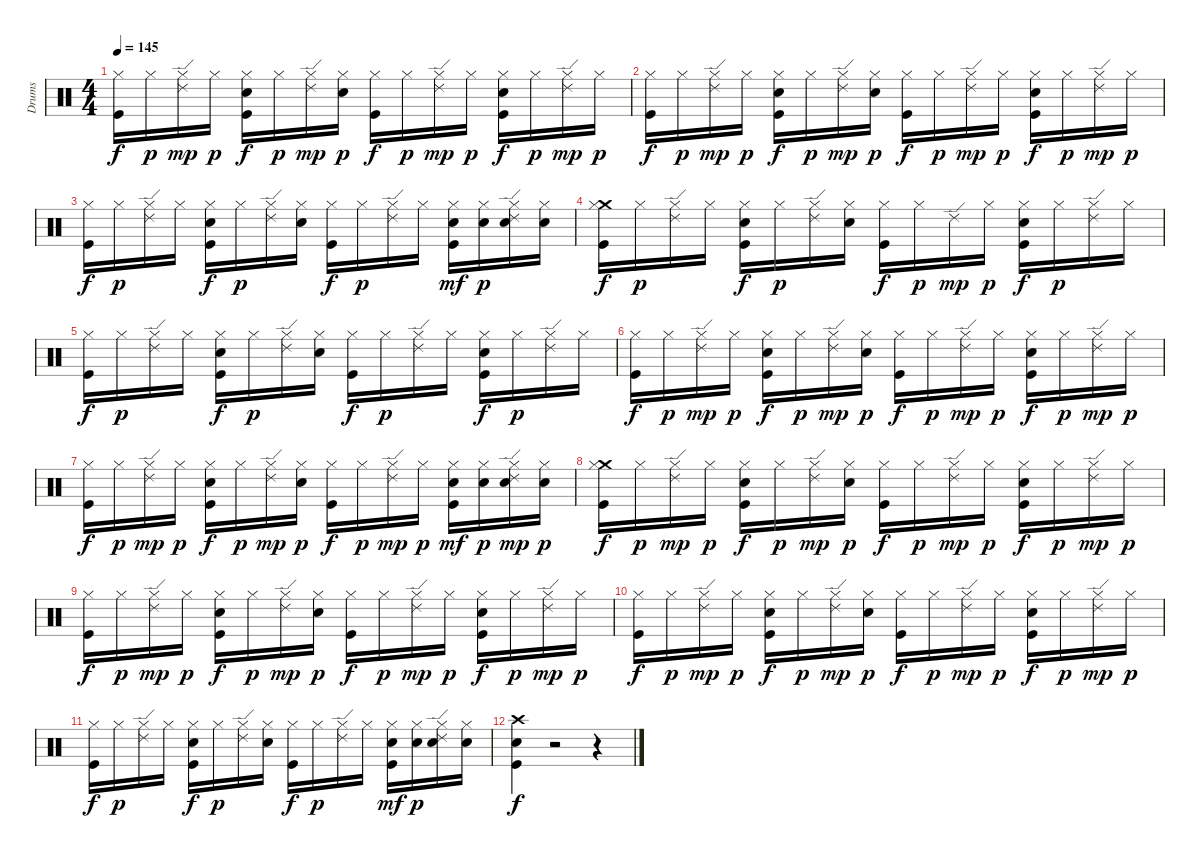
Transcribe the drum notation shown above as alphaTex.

\track ("Drums" "Drums") {instrument percussion}
\staff {score}
\articulation defaults
\ts (4 4)
\tempo 145
\clef neutral
\ks c
("Kick (hit)" "Hi-Hat (closed)").16{dy f} "Hi-Hat (closed)".16{dy p} ("Hi-Hat (closed)" "Ride (edge) 2").16{dy mp} "Hi-Hat (closed)".16{dy p} ("Electric Snare (hit)" "Kick (hit)" "Hi-Hat (closed)").16{dy f} "Hi-Hat (closed)".16{dy p} ("Hi-Hat (closed)" "Ride (edge) 2").16{dy mp} ("Electric Snare (hit)" "Hi-Hat (closed)").16{dy p} ("Kick (hit)" "Hi-Hat (closed)").16{dy f} "Hi-Hat (closed)".16{dy p} ("Hi-Hat (closed)" "Ride (edge) 2").16{dy mp} "Hi-Hat (closed)".16{dy p} ("Electric Snare (hit)" "Kick (hit)" "Hi-Hat (closed)").16{dy f} "Hi-Hat (closed)".16{dy p} ("Hi-Hat (closed)" "Ride (edge) 2").16{dy mp} "Hi-Hat (closed)".16{dy p} |
("Kick (hit)" "Hi-Hat (closed)").16{dy f} "Hi-Hat (closed)".16{dy p} ("Hi-Hat (closed)" "Ride (edge) 2").16{dy mp} "Hi-Hat (closed)".16{dy p} ("Electric Snare (hit)" "Kick (hit)" "Hi-Hat (closed)").16{dy f} "Hi-Hat (closed)".16{dy p} ("Hi-Hat (closed)" "Ride (edge) 2").16{dy mp} ("Electric Snare (hit)" "Hi-Hat (closed)").16{dy p} ("Kick (hit)" "Hi-Hat (closed)").16{dy f} "Hi-Hat (closed)".16{dy p} ("Hi-Hat (closed)" "Ride (edge) 2").16{dy mp} "Hi-Hat (closed)".16{dy p} ("Electric Snare (hit)" "Kick (hit)" "Hi-Hat (closed)").16{dy f} "Hi-Hat (closed)".16{dy p} ("Hi-Hat (closed)" "Ride (edge) 2").16{dy mp} "Hi-Hat (closed)".16{dy p} |
("Kick (hit)" "Hi-Hat (closed)").16{dy f} "Hi-Hat (closed)".16{dy p} ("Ride (edge) 2" "Hi-Hat (closed)").16 "Hi-Hat (closed)".16 ("Electric Snare (hit)" "Kick (hit)" "Hi-Hat (closed)").16{dy f} "Hi-Hat (closed)".16{dy p} ("Ride (edge) 2" "Hi-Hat (closed)").16 ("Electric Snare (hit)" "Hi-Hat (closed)").16 ("Kick (hit)" "Hi-Hat (closed)").16{dy f} "Hi-Hat (closed)".16{dy p} ("Ride (edge) 2" "Hi-Hat (closed)").16 "Hi-Hat (closed)".16 ("Electric Snare (hit)" "Kick (hit)" "Hi-Hat (closed)").16{dy mf} ("Electric Snare (hit)" "Hi-Hat (closed)").16{dy p} ("Electric Snare (hit)" "Ride (edge) 2" "Hi-Hat (closed)").16 ("Electric Snare (hit)" "Hi-Hat (closed)").16 |
("Crash medium (hit)" "Kick (hit)" "Hi-Hat (closed)").16{dy f} "Hi-Hat (closed)".16{dy p} ("Ride (edge) 2" "Hi-Hat (closed)").16 "Hi-Hat (closed)".16 ("Electric Snare (hit)" "Kick (hit)" "Hi-Hat (closed)").16{dy f} "Hi-Hat (closed)".16{dy p} ("Ride (edge) 2" "Hi-Hat (closed)").16 ("Electric Snare (hit)" "Hi-Hat (closed)").16 ("Kick (hit)" "Hi-Hat (closed)").16{dy f} "Hi-Hat (closed)".16{dy p} "Ride (edge) 2".16{dy mp} "Hi-Hat (closed)".16{dy p} ("Electric Snare (hit)" "Kick (hit)" "Hi-Hat (closed)").16{dy f} "Hi-Hat (closed)".16{dy p} ("Ride (edge) 2" "Hi-Hat (closed)").16 "Hi-Hat (closed)".16 |
("Kick (hit)" "Hi-Hat (closed)").16{dy f} "Hi-Hat (closed)".16{dy p} ("Ride (edge) 2" "Hi-Hat (closed)").16 "Hi-Hat (closed)".16 ("Electric Snare (hit)" "Kick (hit)" "Hi-Hat (closed)").16{dy f} "Hi-Hat (closed)".16{dy p} ("Ride (edge) 2" "Hi-Hat (closed)").16 ("Electric Snare (hit)" "Hi-Hat (closed)").16 ("Kick (hit)" "Hi-Hat (closed)").16{dy f} "Hi-Hat (closed)".16{dy p} ("Ride (edge) 2" "Hi-Hat (closed)").16 "Hi-Hat (closed)".16 ("Electric Snare (hit)" "Kick (hit)" "Hi-Hat (closed)").16{dy f} "Hi-Hat (closed)".16{dy p} ("Ride (edge) 2" "Hi-Hat (closed)").16 "Hi-Hat (closed)".16 |
("Kick (hit)" "Hi-Hat (closed)").16{dy f} "Hi-Hat (closed)".16{dy p} ("Hi-Hat (closed)" "Ride (edge) 2").16{dy mp} "Hi-Hat (closed)".16{dy p} ("Electric Snare (hit)" "Kick (hit)" "Hi-Hat (closed)").16{dy f} "Hi-Hat (closed)".16{dy p} ("Hi-Hat (closed)" "Ride (edge) 2").16{dy mp} ("Electric Snare (hit)" "Hi-Hat (closed)").16{dy p} ("Kick (hit)" "Hi-Hat (closed)").16{dy f} "Hi-Hat (closed)".16{dy p} ("Hi-Hat (closed)" "Ride (edge) 2").16{dy mp} "Hi-Hat (closed)".16{dy p} ("Electric Snare (hit)" "Kick (hit)" "Hi-Hat (closed)").16{dy f} "Hi-Hat (closed)".16{dy p} ("Hi-Hat (closed)" "Ride (edge) 2").16{dy mp} "Hi-Hat (closed)".16{dy p} |
("Kick (hit)" "Hi-Hat (closed)").16{dy f} "Hi-Hat (closed)".16{dy p} ("Hi-Hat (closed)" "Ride (edge) 2").16{dy mp} "Hi-Hat (closed)".16{dy p} ("Electric Snare (hit)" "Kick (hit)" "Hi-Hat (closed)").16{dy f} "Hi-Hat (closed)".16{dy p} ("Hi-Hat (closed)" "Ride (edge) 2").16{dy mp} ("Electric Snare (hit)" "Hi-Hat (closed)").16{dy p} ("Kick (hit)" "Hi-Hat (closed)").16{dy f} "Hi-Hat (closed)".16{dy p} ("Hi-Hat (closed)" "Ride (edge) 2").16{dy mp} "Hi-Hat (closed)".16{dy p} ("Electric Snare (hit)" "Kick (hit)" "Hi-Hat (closed)").16{dy mf} ("Electric Snare (hit)" "Hi-Hat (closed)").16{dy p} ("Electric Snare (hit)" "Hi-Hat (closed)" "Ride (edge) 2").16{dy mp} ("Electric Snare (hit)" "Hi-Hat (closed)").16{dy p} |
("Crash medium (hit)" "Kick (hit)" "Hi-Hat (closed)").16{dy f} "Hi-Hat (closed)".16{dy p} ("Hi-Hat (closed)" "Ride (edge) 2").16{dy mp} "Hi-Hat (closed)".16{dy p} ("Electric Snare (hit)" "Kick (hit)" "Hi-Hat (closed)").16{dy f} "Hi-Hat (closed)".16{dy p} ("Hi-Hat (closed)" "Ride (edge) 2").16{dy mp} ("Electric Snare (hit)" "Hi-Hat (closed)").16{dy p} ("Kick (hit)" "Hi-Hat (closed)").16{dy f} "Hi-Hat (closed)".16{dy p} ("Hi-Hat (closed)" "Ride (edge) 2").16{dy mp} "Hi-Hat (closed)".16{dy p} ("Electric Snare (hit)" "Kick (hit)" "Hi-Hat (closed)").16{dy f} "Hi-Hat (closed)".16{dy p} ("Hi-Hat (closed)" "Ride (edge) 2").16{dy mp} "Hi-Hat (closed)".16{dy p} |
("Kick (hit)" "Hi-Hat (closed)").16{dy f} "Hi-Hat (closed)".16{dy p} ("Hi-Hat (closed)" "Ride (edge) 2").16{dy mp} "Hi-Hat (closed)".16{dy p} ("Electric Snare (hit)" "Kick (hit)" "Hi-Hat (closed)").16{dy f} "Hi-Hat (closed)".16{dy p} ("Hi-Hat (closed)" "Ride (edge) 2").16{dy mp} ("Electric Snare (hit)" "Hi-Hat (closed)").16{dy p} ("Kick (hit)" "Hi-Hat (closed)").16{dy f} "Hi-Hat (closed)".16{dy p} ("Hi-Hat (closed)" "Ride (edge) 2").16{dy mp} "Hi-Hat (closed)".16{dy p} ("Electric Snare (hit)" "Kick (hit)" "Hi-Hat (closed)").16{dy f} "Hi-Hat (closed)".16{dy p} ("Hi-Hat (closed)" "Ride (edge) 2").16{dy mp} "Hi-Hat (closed)".16{dy p} |
("Kick (hit)" "Hi-Hat (closed)").16{dy f} "Hi-Hat (closed)".16{dy p} ("Hi-Hat (closed)" "Ride (edge) 2").16{dy mp} "Hi-Hat (closed)".16{dy p} ("Electric Snare (hit)" "Kick (hit)" "Hi-Hat (closed)").16{dy f} "Hi-Hat (closed)".16{dy p} ("Hi-Hat (closed)" "Ride (edge) 2").16{dy mp} ("Electric Snare (hit)" "Hi-Hat (closed)").16{dy p} ("Kick (hit)" "Hi-Hat (closed)").16{dy f} "Hi-Hat (closed)".16{dy p} ("Hi-Hat (closed)" "Ride (edge) 2").16{dy mp} "Hi-Hat (closed)".16{dy p} ("Electric Snare (hit)" "Kick (hit)" "Hi-Hat (closed)").16{dy f} "Hi-Hat (closed)".16{dy p} ("Hi-Hat (closed)" "Ride (edge) 2").16{dy mp} "Hi-Hat (closed)".16{dy p} |
("Kick (hit)" "Hi-Hat (closed)").16{dy f} "Hi-Hat (closed)".16{dy p} ("Ride (edge) 2" "Hi-Hat (closed)").16 "Hi-Hat (closed)".16 ("Electric Snare (hit)" "Kick (hit)" "Hi-Hat (closed)").16{dy f} "Hi-Hat (closed)".16{dy p} ("Ride (edge) 2" "Hi-Hat (closed)").16 ("Electric Snare (hit)" "Hi-Hat (closed)").16 ("Kick (hit)" "Hi-Hat (closed)").16{dy f} "Hi-Hat (closed)".16{dy p} ("Ride (edge) 2" "Hi-Hat (closed)").16 "Hi-Hat (closed)".16 ("Electric Snare (hit)" "Kick (hit)" "Hi-Hat (closed)").16{dy mf} ("Electric Snare (hit)" "Hi-Hat (closed)").16{dy p} ("Electric Snare (hit)" "Ride (edge) 2" "Hi-Hat (closed)").16 ("Electric Snare (hit)" "Hi-Hat (closed)").16 |
("Electric Snare (hit)" "Kick (hit)" "Crash high (hit)").4{dy f} r.2 r.4
